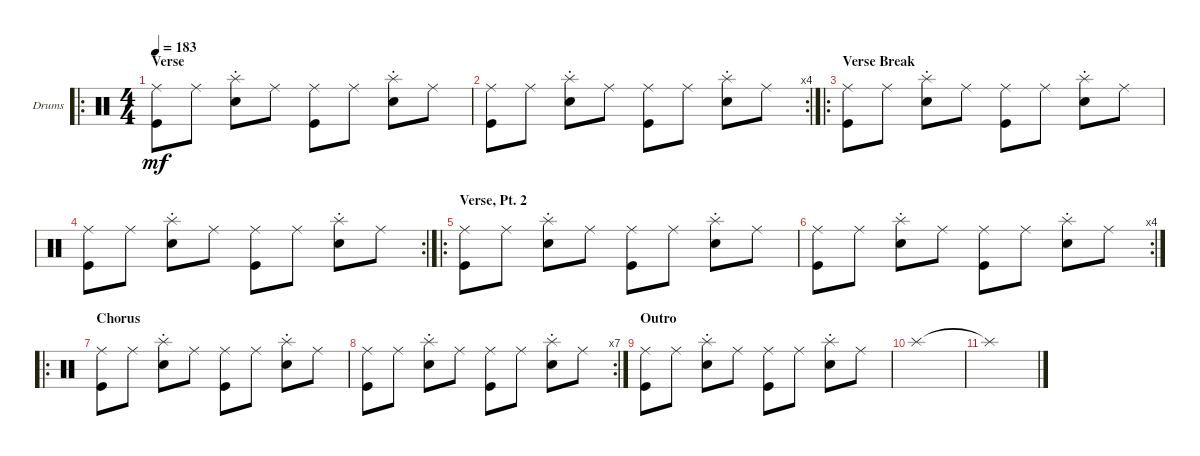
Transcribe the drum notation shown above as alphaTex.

\defaultSystemsLayout 4
\bracketExtendMode groupsimilarinstruments
\firstSystemTrackNameOrientation horizontal
\otherSystemsTrackNameOrientation horizontal
\track ("Drumkit" "Drums") {instrument percussion}
\staff {score}
\articulation defaults
\ro
\ts (4 4)
\section ("" "Verse")
\tempo 183
\clef neutral
\ks c
("Ride (middle)" "Kick (hit)").8{dy mf} "Ride (middle)".8 ("Splash (hit)"{st} "Snare (hit) 2").8 "Ride (middle)".8 ("Ride (middle)" "Kick (hit)").8 "Ride (middle)".8 ("Splash (hit)"{st} "Snare (hit) 2").8 "Ride (middle)".8 |
\rc 4
("Ride (middle)" "Kick (hit)").8 "Ride (middle)".8 ("Splash (hit)"{st} "Snare (hit) 2").8 "Ride (middle)".8 ("Ride (middle)" "Kick (hit)").8 "Ride (middle)".8 ("Splash (hit)"{st} "Snare (hit) 2").8 "Ride (middle)".8 |
\ro
\section ("" "Verse Break")
("Ride (middle)" "Kick (hit)").8 "Ride (middle)".8 ("Splash (hit)"{st} "Snare (hit) 2").8 "Ride (middle)".8 ("Ride (middle)" "Kick (hit)").8 "Ride (middle)".8 ("Splash (hit)"{st} "Snare (hit) 2").8 "Ride (middle)".8 |
\rc 2
("Ride (middle)" "Kick (hit)").8 "Ride (middle)".8 ("Splash (hit)"{st} "Snare (hit) 2").8 "Ride (middle)".8 ("Ride (middle)" "Kick (hit)").8 "Ride (middle)".8 ("Splash (hit)"{st} "Snare (hit) 2").8 "Ride (middle)".8 |
\ro
\section ("" "Verse, Pt. 2")
("Ride (middle)" "Kick (hit)").8 "Ride (middle)".8 ("Splash (hit)"{st} "Snare (hit) 2").8 "Ride (middle)".8 ("Ride (middle)" "Kick (hit)").8 "Ride (middle)".8 ("Splash (hit)"{st} "Snare (hit) 2").8 "Ride (middle)".8 |
\rc 4
("Ride (middle)" "Kick (hit)").8 "Ride (middle)".8 ("Splash (hit)"{st} "Snare (hit) 2").8 "Ride (middle)".8 ("Ride (middle)" "Kick (hit)").8 "Ride (middle)".8 ("Splash (hit)"{st} "Snare (hit) 2").8 "Ride (middle)".8 |
\ro
\section ("" "Chorus")
("Ride (middle)" "Kick (hit)").8 "Ride (middle)".8 ("Splash (hit)"{st} "Snare (hit) 2").8 "Ride (middle)".8 ("Ride (middle)" "Kick (hit)").8 "Ride (middle)".8 ("Splash (hit)"{st} "Snare (hit) 2").8 "Ride (middle)".8 |
\rc 7
("Ride (middle)" "Kick (hit)").8 "Ride (middle)".8 ("Splash (hit)"{st} "Snare (hit) 2").8 "Ride (middle)".8 ("Ride (middle)" "Kick (hit)").8 "Ride (middle)".8 ("Splash (hit)"{st} "Snare (hit) 2").8 "Ride (middle)".8 |
\section ("" "Outro")
("Ride (middle)" "Kick (hit)").8 "Ride (middle)".8 ("Splash (hit)"{st} "Snare (hit) 2").8 "Ride (middle)".8 ("Ride (middle)" "Kick (hit)").8 "Ride (middle)".8 ("Splash (hit)"{st} "Snare (hit) 2").8 "Ride (middle)".8 |
"Splash (hit)".1 |
"Splash (hit)"{t}.1
